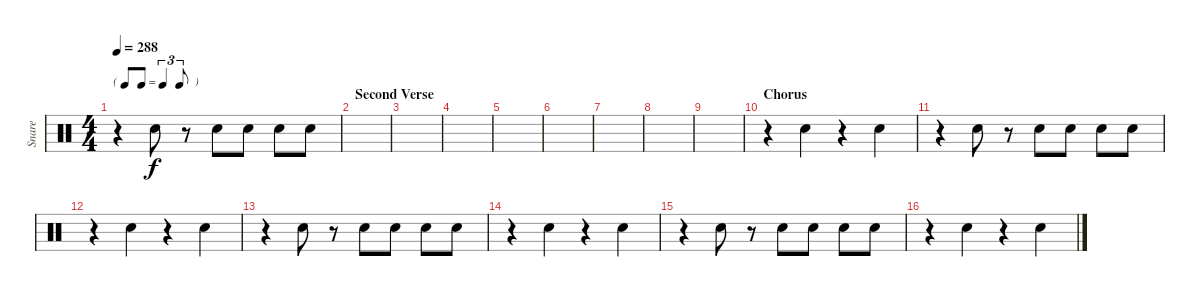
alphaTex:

\track ("Snare" "Snare") {instrument percussion}
\staff {score}
\articulation defaults
\ts (4 4)
\tf triplet8th
\tempo 288
\clef neutral
\ks c
r.4{dy f} "Snare (hit) 2".8 r.8 "Snare (hit) 2".8 "Snare (hit) 2".8 "Snare (hit) 2".8 "Snare (hit) 2".8 |
\section ("" "Second Verse")
|
|
|
|
|
|
|
|
\section ("" "Chorus")
r.4 "Snare (hit) 2".4 r.4 "Snare (hit) 2".4 |
r.4 "Snare (hit) 2".8 r.8 "Snare (hit) 2".8 "Snare (hit) 2".8 "Snare (hit) 2".8 "Snare (hit) 2".8 |
r.4 "Snare (hit) 2".4 r.4 "Snare (hit) 2".4 |
r.4 "Snare (hit) 2".8 r.8 "Snare (hit) 2".8 "Snare (hit) 2".8 "Snare (hit) 2".8 "Snare (hit) 2".8 |
r.4 "Snare (hit) 2".4 r.4 "Snare (hit) 2".4 |
r.4 "Snare (hit) 2".8 r.8 "Snare (hit) 2".8 "Snare (hit) 2".8 "Snare (hit) 2".8 "Snare (hit) 2".8 |
r.4 "Snare (hit) 2".4 r.4 "Snare (hit) 2".4
